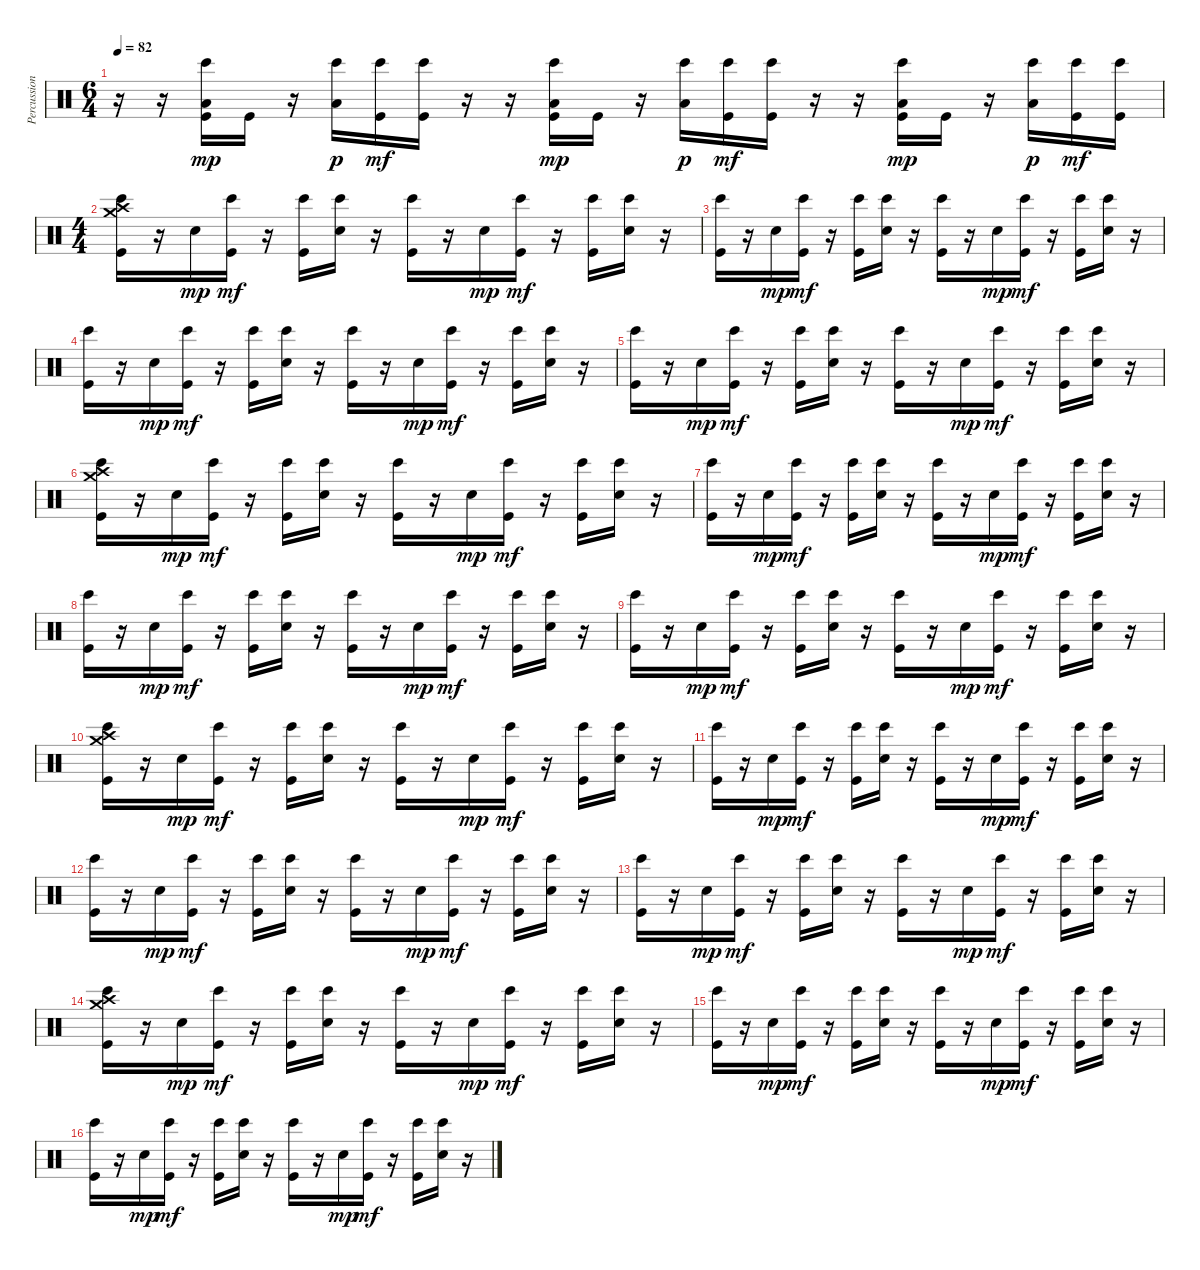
\track ("Percussion" "Percussion") {instrument percussion}
\staff {score}
\articulation defaults
\ts (6 4)
\tempo 82
\clef neutral
\ks c
r.16{dy mf} r.16 ("Kick (hit)" "Low Floor Tom (hit)" "Bongo High (hit)").16{dy mp} "Kick (hit)".16 r.16 ("Low Floor Tom (hit)" "Bongo High (hit)").16{dy p} ("Kick (hit)" "Bongo High (hit)").16{dy mf} ("Kick (hit)" "Bongo High (hit)").16 r.16 r.16 ("Kick (hit)" "Low Floor Tom (hit)" "Bongo High (hit)").16{dy mp} "Kick (hit)".16 r.16 ("Low Floor Tom (hit)" "Bongo High (hit)").16{dy p} ("Kick (hit)" "Bongo High (hit)").16{dy mf} ("Kick (hit)" "Bongo High (hit)").16 r.16 r.16 ("Kick (hit)" "Low Floor Tom (hit)" "Bongo High (hit)").16{dy mp} "Kick (hit)".16 r.16 ("Low Floor Tom (hit)" "Bongo High (hit)").16{dy p} ("Kick (hit)" "Bongo High (hit)").16{dy mf} ("Kick (hit)" "Bongo High (hit)").16 |
\ts (4 4)
("Kick (hit)" "Crash high (hit)" "Bongo High (hit)" "Crash medium (hit)").16 r.16 "Electric Snare (hit)".16{dy mp} ("Kick (hit)" "Bongo High (hit)").16{dy mf} r.16 ("Kick (hit)" "Bongo High (hit)").16 ("Electric Snare (hit)" "Bongo High (hit)").16 r.16 ("Kick (hit)" "Bongo High (hit)").16 r.16 "Electric Snare (hit)".16{dy mp} ("Kick (hit)" "Bongo High (hit)").16{dy mf} r.16 ("Kick (hit)" "Bongo High (hit)").16 ("Electric Snare (hit)" "Bongo High (hit)").16 r.16 |
("Kick (hit)" "Bongo High (hit)").16 r.16 "Electric Snare (hit)".16{dy mp} ("Kick (hit)" "Bongo High (hit)").16{dy mf} r.16 ("Kick (hit)" "Bongo High (hit)").16 ("Electric Snare (hit)" "Bongo High (hit)").16 r.16 ("Kick (hit)" "Bongo High (hit)").16 r.16 "Electric Snare (hit)".16{dy mp} ("Kick (hit)" "Bongo High (hit)").16{dy mf} r.16 ("Kick (hit)" "Bongo High (hit)").16 ("Electric Snare (hit)" "Bongo High (hit)").16 r.16 |
("Kick (hit)" "Bongo High (hit)").16 r.16 "Electric Snare (hit)".16{dy mp} ("Kick (hit)" "Bongo High (hit)").16{dy mf} r.16 ("Kick (hit)" "Bongo High (hit)").16 ("Electric Snare (hit)" "Bongo High (hit)").16 r.16 ("Kick (hit)" "Bongo High (hit)").16 r.16 "Electric Snare (hit)".16{dy mp} ("Kick (hit)" "Bongo High (hit)").16{dy mf} r.16 ("Kick (hit)" "Bongo High (hit)").16 ("Electric Snare (hit)" "Bongo High (hit)").16 r.16 |
("Kick (hit)" "Bongo High (hit)").16 r.16 "Electric Snare (hit)".16{dy mp} ("Kick (hit)" "Bongo High (hit)").16{dy mf} r.16 ("Kick (hit)" "Bongo High (hit)").16 ("Electric Snare (hit)" "Bongo High (hit)").16 r.16 ("Kick (hit)" "Bongo High (hit)").16 r.16 "Electric Snare (hit)".16{dy mp} ("Kick (hit)" "Bongo High (hit)").16{dy mf} r.16 ("Kick (hit)" "Bongo High (hit)").16 ("Electric Snare (hit)" "Bongo High (hit)").16 r.16 |
("Kick (hit)" "Crash high (hit)" "Bongo High (hit)" "Crash medium (hit)").16 r.16 "Electric Snare (hit)".16{dy mp} ("Kick (hit)" "Bongo High (hit)").16{dy mf} r.16 ("Kick (hit)" "Bongo High (hit)").16 ("Electric Snare (hit)" "Bongo High (hit)").16 r.16 ("Kick (hit)" "Bongo High (hit)").16 r.16 "Electric Snare (hit)".16{dy mp} ("Kick (hit)" "Bongo High (hit)").16{dy mf} r.16 ("Kick (hit)" "Bongo High (hit)").16 ("Electric Snare (hit)" "Bongo High (hit)").16 r.16 |
("Kick (hit)" "Bongo High (hit)").16 r.16 "Electric Snare (hit)".16{dy mp} ("Kick (hit)" "Bongo High (hit)").16{dy mf} r.16 ("Kick (hit)" "Bongo High (hit)").16 ("Electric Snare (hit)" "Bongo High (hit)").16 r.16 ("Kick (hit)" "Bongo High (hit)").16 r.16 "Electric Snare (hit)".16{dy mp} ("Kick (hit)" "Bongo High (hit)").16{dy mf} r.16 ("Kick (hit)" "Bongo High (hit)").16 ("Electric Snare (hit)" "Bongo High (hit)").16 r.16 |
("Kick (hit)" "Bongo High (hit)").16 r.16 "Electric Snare (hit)".16{dy mp} ("Kick (hit)" "Bongo High (hit)").16{dy mf} r.16 ("Kick (hit)" "Bongo High (hit)").16 ("Electric Snare (hit)" "Bongo High (hit)").16 r.16 ("Kick (hit)" "Bongo High (hit)").16 r.16 "Electric Snare (hit)".16{dy mp} ("Kick (hit)" "Bongo High (hit)").16{dy mf} r.16 ("Kick (hit)" "Bongo High (hit)").16 ("Electric Snare (hit)" "Bongo High (hit)").16 r.16 |
("Kick (hit)" "Bongo High (hit)").16 r.16 "Electric Snare (hit)".16{dy mp} ("Kick (hit)" "Bongo High (hit)").16{dy mf} r.16 ("Kick (hit)" "Bongo High (hit)").16 ("Electric Snare (hit)" "Bongo High (hit)").16 r.16 ("Kick (hit)" "Bongo High (hit)").16 r.16 "Electric Snare (hit)".16{dy mp} ("Kick (hit)" "Bongo High (hit)").16{dy mf} r.16 ("Kick (hit)" "Bongo High (hit)").16 ("Electric Snare (hit)" "Bongo High (hit)").16 r.16 |
("Kick (hit)" "Crash high (hit)" "Bongo High (hit)" "Crash medium (hit)").16 r.16 "Electric Snare (hit)".16{dy mp} ("Kick (hit)" "Bongo High (hit)").16{dy mf} r.16 ("Kick (hit)" "Bongo High (hit)").16 ("Electric Snare (hit)" "Bongo High (hit)").16 r.16 ("Kick (hit)" "Bongo High (hit)").16 r.16 "Electric Snare (hit)".16{dy mp} ("Kick (hit)" "Bongo High (hit)").16{dy mf} r.16 ("Kick (hit)" "Bongo High (hit)").16 ("Electric Snare (hit)" "Bongo High (hit)").16 r.16 |
("Kick (hit)" "Bongo High (hit)").16 r.16 "Electric Snare (hit)".16{dy mp} ("Kick (hit)" "Bongo High (hit)").16{dy mf} r.16 ("Kick (hit)" "Bongo High (hit)").16 ("Electric Snare (hit)" "Bongo High (hit)").16 r.16 ("Kick (hit)" "Bongo High (hit)").16 r.16 "Electric Snare (hit)".16{dy mp} ("Kick (hit)" "Bongo High (hit)").16{dy mf} r.16 ("Kick (hit)" "Bongo High (hit)").16 ("Electric Snare (hit)" "Bongo High (hit)").16 r.16 |
("Kick (hit)" "Bongo High (hit)").16 r.16 "Electric Snare (hit)".16{dy mp} ("Kick (hit)" "Bongo High (hit)").16{dy mf} r.16 ("Kick (hit)" "Bongo High (hit)").16 ("Electric Snare (hit)" "Bongo High (hit)").16 r.16 ("Kick (hit)" "Bongo High (hit)").16 r.16 "Electric Snare (hit)".16{dy mp} ("Kick (hit)" "Bongo High (hit)").16{dy mf} r.16 ("Kick (hit)" "Bongo High (hit)").16 ("Electric Snare (hit)" "Bongo High (hit)").16 r.16 |
("Kick (hit)" "Bongo High (hit)").16 r.16 "Electric Snare (hit)".16{dy mp} ("Kick (hit)" "Bongo High (hit)").16{dy mf} r.16 ("Kick (hit)" "Bongo High (hit)").16 ("Electric Snare (hit)" "Bongo High (hit)").16 r.16 ("Kick (hit)" "Bongo High (hit)").16 r.16 "Electric Snare (hit)".16{dy mp} ("Kick (hit)" "Bongo High (hit)").16{dy mf} r.16 ("Kick (hit)" "Bongo High (hit)").16 ("Electric Snare (hit)" "Bongo High (hit)").16 r.16 |
("Kick (hit)" "Crash high (hit)" "Bongo High (hit)" "Crash medium (hit)").16 r.16 "Electric Snare (hit)".16{dy mp} ("Kick (hit)" "Bongo High (hit)").16{dy mf} r.16 ("Kick (hit)" "Bongo High (hit)").16 ("Electric Snare (hit)" "Bongo High (hit)").16 r.16 ("Kick (hit)" "Bongo High (hit)").16 r.16 "Electric Snare (hit)".16{dy mp} ("Kick (hit)" "Bongo High (hit)").16{dy mf} r.16 ("Kick (hit)" "Bongo High (hit)").16 ("Electric Snare (hit)" "Bongo High (hit)").16 r.16 |
("Kick (hit)" "Bongo High (hit)").16 r.16 "Electric Snare (hit)".16{dy mp} ("Kick (hit)" "Bongo High (hit)").16{dy mf} r.16 ("Kick (hit)" "Bongo High (hit)").16 ("Electric Snare (hit)" "Bongo High (hit)").16 r.16 ("Kick (hit)" "Bongo High (hit)").16 r.16 "Electric Snare (hit)".16{dy mp} ("Kick (hit)" "Bongo High (hit)").16{dy mf} r.16 ("Kick (hit)" "Bongo High (hit)").16 ("Electric Snare (hit)" "Bongo High (hit)").16 r.16 |
("Kick (hit)" "Bongo High (hit)").16 r.16 "Electric Snare (hit)".16{dy mp} ("Kick (hit)" "Bongo High (hit)").16{dy mf} r.16 ("Kick (hit)" "Bongo High (hit)").16 ("Electric Snare (hit)" "Bongo High (hit)").16 r.16 ("Kick (hit)" "Bongo High (hit)").16 r.16 "Electric Snare (hit)".16{dy mp} ("Kick (hit)" "Bongo High (hit)").16{dy mf} r.16 ("Kick (hit)" "Bongo High (hit)").16 ("Electric Snare (hit)" "Bongo High (hit)").16 r.16
